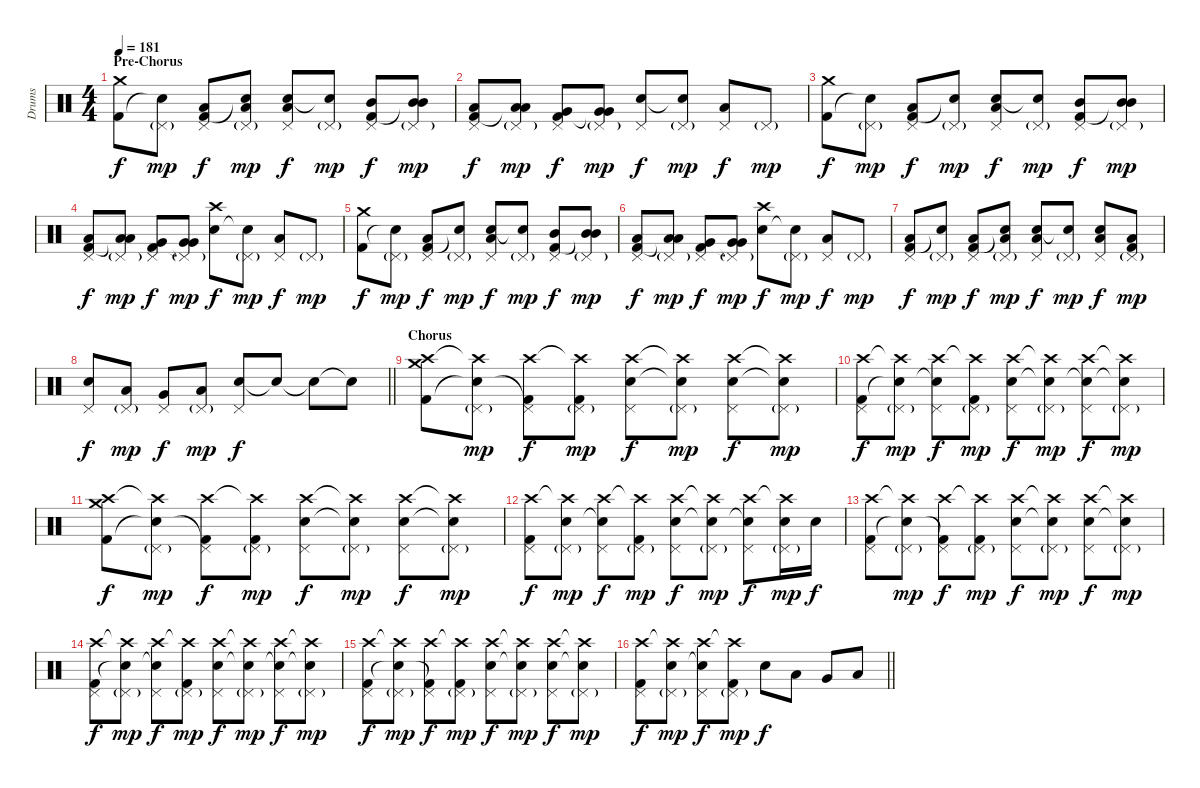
\track ("Drums" "Drums") {instrument percussion}
\staff {score}
\articulation defaults
\ts (4 4)
\section ("" "Pre-Chorus")
\tempo 181
\clef neutral
\ks c
("Kick (hit) 2" "Crash medium (hit)").8{dy f} ("Snare (hit)"{t} "Pedal Hi-Hat (hit)"{g}).8{dy mp} ("Kick (hit) 2" "Pedal Hi-Hat (hit)" "Low Floor Tom (hit)").8{dy f} ("Snare (hit)"{t} "Pedal Hi-Hat (hit)"{g} "Low Floor Tom (hit)").8{dy mp} ("Electric Snare (hit)" "Pedal Hi-Hat (hit)" "Low Floor Tom (hit)").8{dy f} ("Snare (hit)"{t} "Pedal Hi-Hat (hit)"{g}).8{dy mp} ("Kick (hit) 2" "Pedal Hi-Hat (hit)" "Mid Tom (hit)").8{dy f} ("Mid Tom (hit)"{t} "Pedal Hi-Hat (hit)"{g} "Mid Tom (hit)").8{dy mp} |
("Kick (hit) 2" "Pedal Hi-Hat (hit)" "Low Tom (hit)").8{dy f} ("Low Tom (hit)"{t} "Pedal Hi-Hat (hit)"{g} "Low Tom (hit)").8{dy mp} ("Kick (hit) 2" "Pedal Hi-Hat (hit)" "Very Low Tom (hit)").8{dy f} ("Very Low Tom (hit)"{t} "Pedal Hi-Hat (hit)"{g} "Very Low Tom (hit)").8{dy mp} ("Electric Snare (hit)" "Pedal Hi-Hat (hit)").8{dy f} ("Snare (hit)"{t} "Pedal Hi-Hat (hit)"{g}).8{dy mp} ("Pedal Hi-Hat (hit)" "Low Floor Tom (hit)").8{dy f} "Pedal Hi-Hat (hit)"{g}.8{dy mp} |
("Kick (hit) 2" "Crash medium (hit)").8{dy f} ("Snare (hit)"{t} "Pedal Hi-Hat (hit)"{g}).8{dy mp} ("Kick (hit) 2" "Pedal Hi-Hat (hit)" "Low Floor Tom (hit)").8{dy f} ("Snare (hit)"{t} "Pedal Hi-Hat (hit)"{g}).8{dy mp} ("Electric Snare (hit)" "Pedal Hi-Hat (hit)" "Low Floor Tom (hit)").8{dy f} ("Snare (hit)"{t} "Pedal Hi-Hat (hit)"{g}).8{dy mp} ("Kick (hit) 2" "Pedal Hi-Hat (hit)" "Mid Tom (hit)").8{dy f} ("Mid Tom (hit)"{t} "Pedal Hi-Hat (hit)"{g} "Mid Tom (hit)").8{dy mp} |
("Kick (hit) 2" "Pedal Hi-Hat (hit)" "Low Tom (hit)").8{dy f} ("Low Tom (hit)"{t} "Pedal Hi-Hat (hit)"{g} "Low Tom (hit)").8{dy mp} ("Kick (hit) 2" "Pedal Hi-Hat (hit)" "Very Low Tom (hit)").8{dy f} ("Very Low Tom (hit)"{t} "Pedal Hi-Hat (hit)"{g} "Very Low Tom (hit)").8{dy mp} ("Electric Snare (hit)" "Crash high (hit)").8{dy f} ("Snare (hit)"{t} "Pedal Hi-Hat (hit)"{g}).8{dy mp} ("Pedal Hi-Hat (hit)" "Low Floor Tom (hit)").8{dy f} "Pedal Hi-Hat (hit)"{g}.8{dy mp} |
("Kick (hit) 2" "Crash medium (hit)").8{dy f} ("Snare (hit)"{t} "Pedal Hi-Hat (hit)"{g}).8{dy mp} ("Kick (hit) 2" "Pedal Hi-Hat (hit)" "Low Floor Tom (hit)").8{dy f} ("Snare (hit)"{t} "Pedal Hi-Hat (hit)"{g}).8{dy mp} ("Electric Snare (hit)" "Pedal Hi-Hat (hit)" "Low Floor Tom (hit)").8{dy f} ("Snare (hit)"{t} "Pedal Hi-Hat (hit)"{g}).8{dy mp} ("Kick (hit) 2" "Pedal Hi-Hat (hit)" "Mid Tom (hit)").8{dy f} ("Mid Tom (hit)"{t} "Pedal Hi-Hat (hit)"{g} "Mid Tom (hit)").8{dy mp} |
("Kick (hit) 2" "Pedal Hi-Hat (hit)" "Low Tom (hit)").8{dy f} ("Low Tom (hit)"{t} "Pedal Hi-Hat (hit)"{g} "Low Tom (hit)").8{dy mp} ("Kick (hit) 2" "Pedal Hi-Hat (hit)" "Very Low Tom (hit)").8{dy f} ("Very Low Tom (hit)"{t} "Pedal Hi-Hat (hit)"{g} "Very Low Tom (hit)").8{dy mp} ("Electric Snare (hit)" "Crash high (hit)").8{dy f} ("Snare (hit)"{t} "Pedal Hi-Hat (hit)"{g}).8{dy mp} ("Pedal Hi-Hat (hit)" "Low Floor Tom (hit)").8{dy f} "Pedal Hi-Hat (hit)"{g}.8{dy mp} |
("Kick (hit) 2" "Pedal Hi-Hat (hit)" "Low Floor Tom (hit)").8{dy f} ("Snare (hit)"{t} "Pedal Hi-Hat (hit)"{g}).8{dy mp} ("Kick (hit) 2" "Pedal Hi-Hat (hit)" "Low Floor Tom (hit)").8{dy f} ("Snare (hit)"{t} "Pedal Hi-Hat (hit)"{g} "Low Floor Tom (hit)").8{dy mp} ("Electric Snare (hit)" "Pedal Hi-Hat (hit)" "Low Floor Tom (hit)").8{dy f} ("Snare (hit)"{t} "Pedal Hi-Hat (hit)"{g}).8{dy mp} ("Electric Snare (hit)" "Pedal Hi-Hat (hit)" "Low Floor Tom (hit)").8{dy f} ("Kick (hit) 2" "Pedal Hi-Hat (hit)"{g} "Low Floor Tom (hit)").8{dy mp} |
\barLineRight lightlight
("Electric Snare (hit)" "Pedal Hi-Hat (hit)").8{dy f} ("Low Tom (hit)" "Pedal Hi-Hat (hit)"{g}).8{dy mp} ("Very Low Tom (hit)" "Pedal Hi-Hat (hit)").8{dy f} ("Low Floor Tom (hit)" "Pedal Hi-Hat (hit)"{g}).8{dy mp} ("Electric Snare (hit)" "Pedal Hi-Hat (hit)").8{dy f} "Snare (hit)"{t}.8 "Snare (hit)"{t}.8 "Snare (hit)"{t}.8 |
\section ("" "Chorus")
("Kick (hit) 2" "Crash medium (hit)" "Crash high (hit)").8 ("Snare (hit)"{t} "Pedal Hi-Hat (hit)"{g} "Crash high (hit)"{t}).8{dy mp} ("Kick (hit) 2"{t} "Pedal Hi-Hat (hit)" "Crash high (hit)").8{dy f} ("Kick (hit) 2" "Pedal Hi-Hat (hit)"{g} "Crash high (hit)"{t}).8{dy mp} ("Electric Snare (hit)" "Pedal Hi-Hat (hit)" "Crash high (hit)").8{dy f} ("Electric Snare (hit)"{t} "Pedal Hi-Hat (hit)"{g} "Crash high (hit)"{t}).8{dy mp} ("Electric Snare (hit)" "Pedal Hi-Hat (hit)" "Crash high (hit)").8{dy f} ("Snare (hit)"{t} "Pedal Hi-Hat (hit)"{g} "Crash high (hit)"{t}).8{dy mp} |
("Kick (hit) 2" "Pedal Hi-Hat (hit)" "Crash high (hit)").8{dy f} ("Snare (hit)"{t} "Pedal Hi-Hat (hit)"{g} "Crash high (hit)"{t}).8{dy mp} ("Snare (hit)"{t} "Pedal Hi-Hat (hit)" "Crash high (hit)").8{dy f} ("Kick (hit) 2" "Pedal Hi-Hat (hit)"{g} "Crash high (hit)"{t}).8{dy mp} ("Electric Snare (hit)" "Pedal Hi-Hat (hit)" "Crash high (hit)").8{dy f} ("Snare (hit)"{t} "Pedal Hi-Hat (hit)"{g} "Crash high (hit)"{t}).8{dy mp} ("Snare (hit)"{t} "Pedal Hi-Hat (hit)" "Crash high (hit)").8{dy f} ("Snare (hit)"{t} "Pedal Hi-Hat (hit)"{g} "Crash high (hit)"{t}).8{dy mp} |
("Kick (hit) 2" "Crash medium (hit)" "Crash high (hit)").8{dy f} ("Snare (hit)"{t} "Pedal Hi-Hat (hit)"{g} "Crash high (hit)"{t}).8{dy mp} ("Kick (hit) 2"{t} "Pedal Hi-Hat (hit)" "Crash high (hit)").8{dy f} ("Kick (hit) 2" "Pedal Hi-Hat (hit)"{g} "Crash high (hit)"{t}).8{dy mp} ("Electric Snare (hit)" "Pedal Hi-Hat (hit)" "Crash high (hit)").8{dy f} ("Electric Snare (hit)"{t} "Pedal Hi-Hat (hit)"{g} "Crash high (hit)"{t}).8{dy mp} ("Electric Snare (hit)" "Pedal Hi-Hat (hit)" "Crash high (hit)").8{dy f} ("Snare (hit)"{t} "Pedal Hi-Hat (hit)"{g} "Crash high (hit)"{t}).8{dy mp} |
("Kick (hit) 2" "Pedal Hi-Hat (hit)" "Crash high (hit)").8{dy f} ("Electric Snare (hit)" "Pedal Hi-Hat (hit)"{g} "Crash high (hit)"{t}).8{dy mp} ("Snare (hit)"{t} "Pedal Hi-Hat (hit)" "Crash high (hit)").8{dy f} ("Kick (hit) 2" "Pedal Hi-Hat (hit)"{g} "Crash high (hit)"{t}).8{dy mp} ("Electric Snare (hit)" "Pedal Hi-Hat (hit)" "Crash high (hit)").8{dy f} ("Snare (hit)"{t} "Pedal Hi-Hat (hit)"{g} "Crash high (hit)"{t}).8{dy mp} ("Snare (hit)"{t} "Pedal Hi-Hat (hit)" "Crash high (hit)").8{dy f} ("Electric Snare (hit)" "Pedal Hi-Hat (hit)"{g} "Crash high (hit)"{t}).16{dy mp} "Electric Snare (hit)".16{dy f} |
("Kick (hit) 2" "Pedal Hi-Hat (hit)" "Crash high (hit)").8 ("Snare (hit)"{t} "Pedal Hi-Hat (hit)"{g} "Crash high (hit)"{t}).8{dy mp} ("Kick (hit) 2"{t} "Pedal Hi-Hat (hit)" "Crash high (hit)").8{dy f} ("Kick (hit) 2" "Pedal Hi-Hat (hit)"{g} "Crash high (hit)"{t}).8{dy mp} ("Electric Snare (hit)" "Pedal Hi-Hat (hit)" "Crash high (hit)").8{dy f} ("Electric Snare (hit)"{t} "Pedal Hi-Hat (hit)"{g} "Crash high (hit)"{t}).8{dy mp} ("Electric Snare (hit)" "Pedal Hi-Hat (hit)" "Crash high (hit)").8{dy f} ("Snare (hit)"{t} "Pedal Hi-Hat (hit)"{g} "Crash high (hit)"{t}).8{dy mp} |
("Kick (hit) 2" "Pedal Hi-Hat (hit)" "Crash high (hit)").8{dy f} ("Snare (hit)"{t} "Pedal Hi-Hat (hit)"{g} "Crash high (hit)"{t}).8{dy mp} ("Snare (hit)"{t} "Pedal Hi-Hat (hit)" "Crash high (hit)").8{dy f} ("Kick (hit) 2" "Pedal Hi-Hat (hit)"{g} "Crash high (hit)"{t}).8{dy mp} ("Electric Snare (hit)" "Pedal Hi-Hat (hit)" "Crash high (hit)").8{dy f} ("Snare (hit)"{t} "Pedal Hi-Hat (hit)"{g} "Crash high (hit)"{t}).8{dy mp} ("Snare (hit)"{t} "Pedal Hi-Hat (hit)" "Crash high (hit)").8{dy f} ("Snare (hit)"{t} "Pedal Hi-Hat (hit)"{g} "Crash high (hit)"{t}).8{dy mp} |
("Kick (hit) 2" "Pedal Hi-Hat (hit)" "Crash high (hit)").8{dy f} ("Snare (hit)"{t} "Pedal Hi-Hat (hit)"{g} "Crash high (hit)"{t}).8{dy mp} ("Kick (hit) 2"{t} "Pedal Hi-Hat (hit)" "Crash high (hit)").8{dy f} ("Kick (hit) 2" "Pedal Hi-Hat (hit)"{g} "Crash high (hit)"{t}).8{dy mp} ("Electric Snare (hit)" "Pedal Hi-Hat (hit)" "Crash high (hit)").8{dy f} ("Electric Snare (hit)"{t} "Pedal Hi-Hat (hit)"{g} "Crash high (hit)"{t}).8{dy mp} ("Electric Snare (hit)" "Pedal Hi-Hat (hit)" "Crash high (hit)").8{dy f} ("Snare (hit)"{t} "Pedal Hi-Hat (hit)"{g} "Crash high (hit)"{t}).8{dy mp} |
\barLineRight lightlight
("Kick (hit) 2" "Pedal Hi-Hat (hit)" "Crash high (hit)").8{dy f} ("Electric Snare (hit)" "Pedal Hi-Hat (hit)"{g} "Crash high (hit)"{t}).8{dy mp} ("Snare (hit)"{t} "Pedal Hi-Hat (hit)" "Crash high (hit)").8{dy f} ("Kick (hit) 2" "Pedal Hi-Hat (hit)"{g} "Crash high (hit)"{t}).8{dy mp} "Electric Snare (hit)".8{dy f} "Low Tom (hit)".8 "Very Low Tom (hit)".8 "Low Floor Tom (hit)".8
